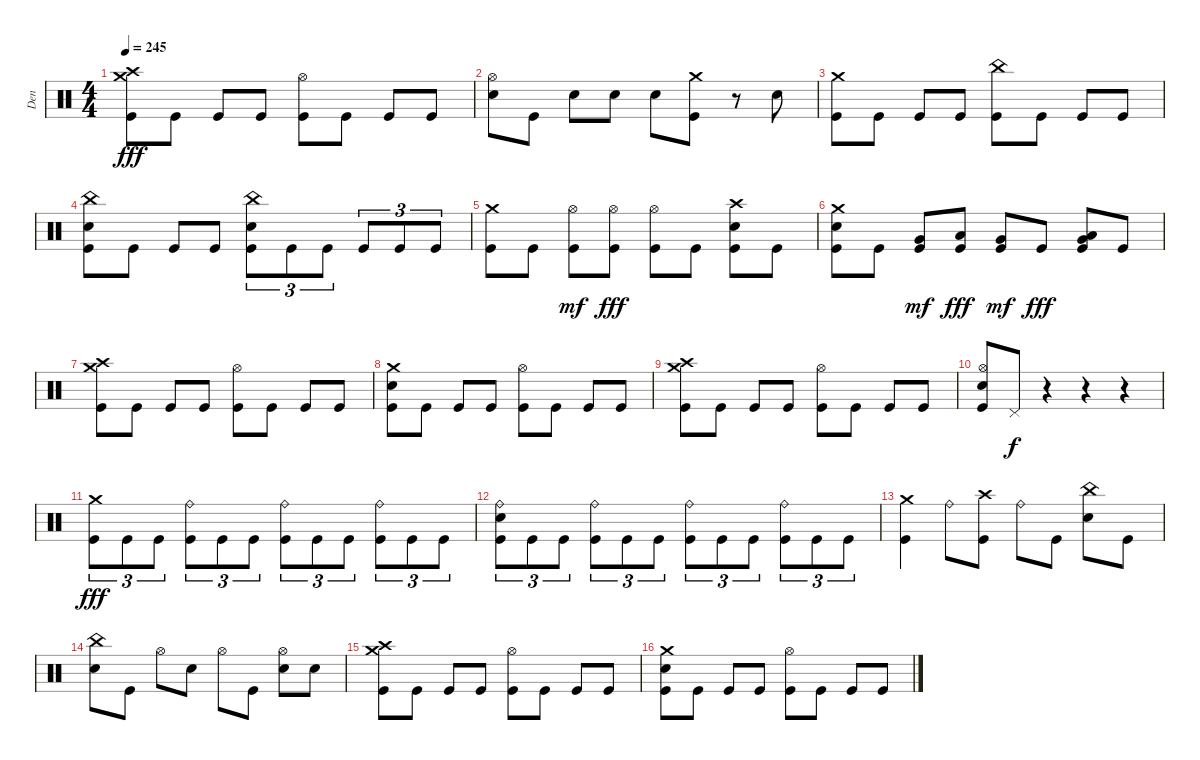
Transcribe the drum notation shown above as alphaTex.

\track ("Den" "Den") {instrument percussion}
\staff {score}
\articulation defaults
\ts (4 4)
\tempo 245
\clef neutral
\ks c
("Crash medium (hit)" "Crash high (hit)" "Kick (hit)").8{dy fff} "Kick (hit)".8 "Kick (hit)".8 "Kick (hit)".8 ("Hi-Hat (open)" "Kick (hit)").8 "Kick (hit)".8 "Kick (hit)".8 "Kick (hit)".8 |
("Electric Snare (hit)" "Hi-Hat (open)").8 "Kick (hit)".8 "Electric Snare (hit)".8 "Electric Snare (hit)".8 "Electric Snare (hit)".8 ("Crash medium (hit)" "Kick (hit)").8 r.8 "Electric Snare (hit)".8 |
("Kick (hit)" "Crash medium (hit)").8 "Kick (hit)".8 "Kick (hit)".8 "Kick (hit)".8 ("Kick (hit)" "China (hit)").8 "Kick (hit)".8 "Kick (hit)".8 "Kick (hit)".8 |
("Kick (hit)" "Electric Snare (hit)" "China (hit)").8 "Kick (hit)".8 "Kick (hit)".8 "Kick (hit)".8 ("Kick (hit)" "China (hit)" "Electric Snare (hit)").8{tu (3 2)} "Kick (hit)".8{tu (3 2)} "Kick (hit)".8{tu (3 2)} "Kick (hit)".8{tu (3 2)} "Kick (hit)".8{tu (3 2)} "Kick (hit)".8{tu (3 2)} |
("Kick (hit)" "Crash medium (hit)").8 "Kick (hit)".8 ("Kick (hit)" "Hi-Hat (open)").8{dy mf} ("Kick (hit)" "Hi-Hat (open)").8{dy fff} ("Kick (hit)" "Hi-Hat (open)").8 "Kick (hit)".8 ("Kick (hit)" "Crash high (hit)" "Electric Snare (hit)").8 "Kick (hit)".8 |
("Electric Snare (hit)" "Kick (hit)" "Crash medium (hit)").8 "Kick (hit)".8 ("Kick (hit)" "Very Low Tom (hit)").8{dy mf} ("Kick (hit)" "Low Tom (hit)").8{dy fff} ("Kick (hit)" "Very Low Tom (hit)").8{dy mf} "Kick (hit)".8{dy fff} ("Kick (hit)" "Very Low Tom (hit)" "Low Tom (hit)").8 "Kick (hit)".8 |
("Crash medium (hit)" "Crash high (hit)" "Kick (hit)").8 "Kick (hit)".8 "Kick (hit)".8 "Kick (hit)".8 ("Hi-Hat (open)" "Kick (hit)").8 "Kick (hit)".8 "Kick (hit)".8 "Kick (hit)".8 |
("Electric Snare (hit)" "Crash medium (hit)" "Kick (hit)").8 "Kick (hit)".8 "Kick (hit)".8 "Kick (hit)".8 ("Kick (hit)" "Hi-Hat (open)").8 "Kick (hit)".8 "Kick (hit)".8 "Kick (hit)".8 |
("Crash medium (hit)" "Crash high (hit)" "Kick (hit)").8 "Kick (hit)".8 "Kick (hit)".8 "Kick (hit)".8 ("Hi-Hat (open)" "Kick (hit)").8 "Kick (hit)".8 "Kick (hit)".8 "Kick (hit)".8 |
("Electric Snare (hit)" "Hi-Hat (open)" "Kick (hit)").8 "Pedal Hi-Hat (hit)".8{dy f} r.4 r.4 r.4 |
("Kick (hit)" "Crash medium (hit)").8{tu (3 2) dy fff} "Kick (hit)".8{tu (3 2)} "Kick (hit)".8{tu (3 2)} ("Kick (hit)" "Ride (bell)").8{tu (3 2)} "Kick (hit)".8{tu (3 2)} "Kick (hit)".8{tu (3 2)} ("Kick (hit)" "Ride (bell)").8{tu (3 2)} "Kick (hit)".8{tu (3 2)} "Kick (hit)".8{tu (3 2)} ("Kick (hit)" "Ride (bell)").8{tu (3 2)} "Kick (hit)".8{tu (3 2)} "Kick (hit)".8{tu (3 2)} |
("Kick (hit)" "Electric Snare (hit)" "Ride (bell)").8{tu (3 2)} "Kick (hit)".8{tu (3 2)} "Kick (hit)".8{tu (3 2)} ("Kick (hit)" "Ride (bell)").8{tu (3 2)} "Kick (hit)".8{tu (3 2)} "Kick (hit)".8{tu (3 2)} ("Kick (hit)" "Ride (bell)").8{tu (3 2)} "Kick (hit)".8{tu (3 2)} "Kick (hit)".8{tu (3 2)} ("Kick (hit)" "Ride (bell)").8{tu (3 2)} "Kick (hit)".8{tu (3 2)} "Kick (hit)".8{tu (3 2)} |
("Crash medium (hit)" "Kick (hit)").4 "Ride (bell)".8 ("Crash high (hit)" "Kick (hit)").8 "Ride (bell)".8 "Kick (hit)".8 ("Electric Snare (hit)" "China (hit)").8 "Kick (hit)".8 |
("Electric Snare (hit)" "China (hit)").8 "Kick (hit)".8 "Hi-Hat (open)".8 "Electric Snare (hit)".8 "Hi-Hat (open)".8 "Kick (hit)".8 ("Electric Snare (hit)" "Hi-Hat (open)").8 "Electric Snare (hit)".8 |
("Crash medium (hit)" "Crash high (hit)" "Kick (hit)").8 "Kick (hit)".8 "Kick (hit)".8 "Kick (hit)".8 ("Hi-Hat (open)" "Kick (hit)").8 "Kick (hit)".8 "Kick (hit)".8 "Kick (hit)".8 |
("Electric Snare (hit)" "Crash medium (hit)" "Kick (hit)").8 "Kick (hit)".8 "Kick (hit)".8 "Kick (hit)".8 ("Kick (hit)" "Hi-Hat (open)").8 "Kick (hit)".8 "Kick (hit)".8 "Kick (hit)".8
